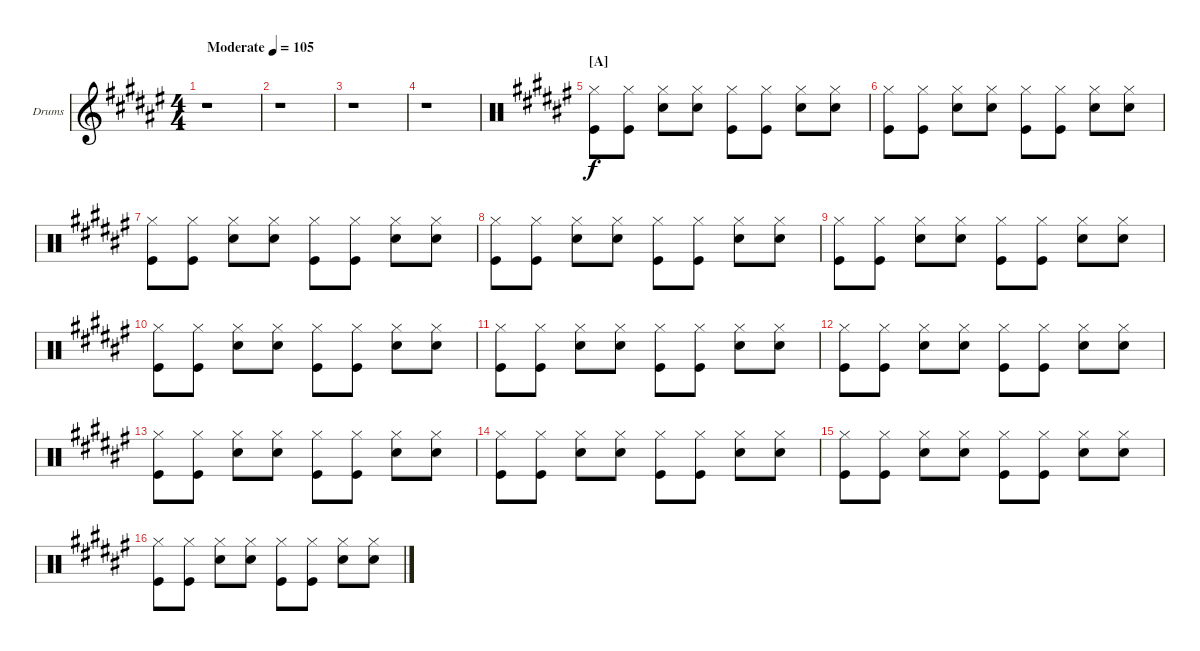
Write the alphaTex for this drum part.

\bracketExtendMode groupsimilarinstruments
\firstSystemTrackNameOrientation horizontal
\otherSystemsTrackNameOrientation horizontal
\track ("Fab Moretti" "Drums") {instrument percussion}
\staff {score}
\articulation defaults
\ts (4 4)
\beaming (8 2 2 2 2)
\tempo (105 "Moderate")
\clef g2
\ks f#
r.1{dy f} |
r.1 |
r.1 |
r.1 |
\section ("A" "")
\clef neutral
("Hi-Hat (closed)" "Kick (hit)").8 ("Hi-Hat (closed)" "Kick (hit)").8 ("Hi-Hat (closed)" "Snare (hit) 2").8 ("Hi-Hat (closed)" "Snare (hit) 2").8 ("Hi-Hat (closed)" "Kick (hit)").8 ("Hi-Hat (closed)" "Kick (hit)").8 ("Hi-Hat (closed)" "Snare (hit) 2").8 ("Hi-Hat (closed)" "Snare (hit) 2").8 |
("Hi-Hat (closed)" "Kick (hit)").8 ("Hi-Hat (closed)" "Kick (hit)").8 ("Hi-Hat (closed)" "Snare (hit) 2").8 ("Hi-Hat (closed)" "Snare (hit) 2").8 ("Hi-Hat (closed)" "Kick (hit)").8 ("Hi-Hat (closed)" "Kick (hit)").8 ("Hi-Hat (closed)" "Snare (hit) 2").8 ("Hi-Hat (closed)" "Snare (hit) 2").8 |
("Hi-Hat (closed)" "Kick (hit)").8 ("Hi-Hat (closed)" "Kick (hit)").8 ("Hi-Hat (closed)" "Snare (hit) 2").8 ("Hi-Hat (closed)" "Snare (hit) 2").8 ("Hi-Hat (closed)" "Kick (hit)").8 ("Hi-Hat (closed)" "Kick (hit)").8 ("Hi-Hat (closed)" "Snare (hit) 2").8 ("Hi-Hat (closed)" "Snare (hit) 2").8 |
("Hi-Hat (closed)" "Kick (hit)").8 ("Hi-Hat (closed)" "Kick (hit)").8 ("Hi-Hat (closed)" "Snare (hit) 2").8 ("Hi-Hat (closed)" "Snare (hit) 2").8 ("Hi-Hat (closed)" "Kick (hit)").8 ("Hi-Hat (closed)" "Kick (hit)").8 ("Hi-Hat (closed)" "Snare (hit) 2").8 ("Hi-Hat (closed)" "Snare (hit) 2").8 |
("Hi-Hat (closed)" "Kick (hit)").8 ("Hi-Hat (closed)" "Kick (hit)").8 ("Hi-Hat (closed)" "Snare (hit) 2").8 ("Hi-Hat (closed)" "Snare (hit) 2").8 ("Hi-Hat (closed)" "Kick (hit)").8 ("Hi-Hat (closed)" "Kick (hit)").8 ("Hi-Hat (closed)" "Snare (hit) 2").8 ("Hi-Hat (closed)" "Snare (hit) 2").8 |
("Hi-Hat (closed)" "Kick (hit)").8 ("Hi-Hat (closed)" "Kick (hit)").8 ("Hi-Hat (closed)" "Snare (hit) 2").8 ("Hi-Hat (closed)" "Snare (hit) 2").8 ("Hi-Hat (closed)" "Kick (hit)").8 ("Hi-Hat (closed)" "Kick (hit)").8 ("Hi-Hat (closed)" "Snare (hit) 2").8 ("Hi-Hat (closed)" "Snare (hit) 2").8 |
("Hi-Hat (closed)" "Kick (hit)").8 ("Hi-Hat (closed)" "Kick (hit)").8 ("Hi-Hat (closed)" "Snare (hit) 2").8 ("Hi-Hat (closed)" "Snare (hit) 2").8 ("Hi-Hat (closed)" "Kick (hit)").8 ("Hi-Hat (closed)" "Kick (hit)").8 ("Hi-Hat (closed)" "Snare (hit) 2").8 ("Hi-Hat (closed)" "Snare (hit) 2").8 |
("Hi-Hat (closed)" "Kick (hit)").8 ("Hi-Hat (closed)" "Kick (hit)").8 ("Hi-Hat (closed)" "Snare (hit) 2").8 ("Hi-Hat (closed)" "Snare (hit) 2").8 ("Hi-Hat (closed)" "Kick (hit)").8 ("Hi-Hat (closed)" "Kick (hit)").8 ("Hi-Hat (closed)" "Snare (hit) 2").8 ("Hi-Hat (closed)" "Snare (hit) 2").8 |
("Hi-Hat (closed)" "Kick (hit)").8 ("Hi-Hat (closed)" "Kick (hit)").8 ("Hi-Hat (closed)" "Snare (hit) 2").8 ("Hi-Hat (closed)" "Snare (hit) 2").8 ("Hi-Hat (closed)" "Kick (hit)").8 ("Hi-Hat (closed)" "Kick (hit)").8 ("Hi-Hat (closed)" "Snare (hit) 2").8 ("Hi-Hat (closed)" "Snare (hit) 2").8 |
("Hi-Hat (closed)" "Kick (hit)").8 ("Hi-Hat (closed)" "Kick (hit)").8 ("Hi-Hat (closed)" "Snare (hit) 2").8 ("Hi-Hat (closed)" "Snare (hit) 2").8 ("Hi-Hat (closed)" "Kick (hit)").8 ("Hi-Hat (closed)" "Kick (hit)").8 ("Hi-Hat (closed)" "Snare (hit) 2").8 ("Hi-Hat (closed)" "Snare (hit) 2").8 |
("Hi-Hat (closed)" "Kick (hit)").8 ("Hi-Hat (closed)" "Kick (hit)").8 ("Hi-Hat (closed)" "Snare (hit) 2").8 ("Hi-Hat (closed)" "Snare (hit) 2").8 ("Hi-Hat (closed)" "Kick (hit)").8 ("Hi-Hat (closed)" "Kick (hit)").8 ("Hi-Hat (closed)" "Snare (hit) 2").8 ("Hi-Hat (closed)" "Snare (hit) 2").8 |
("Hi-Hat (closed)" "Kick (hit)").8 ("Hi-Hat (closed)" "Kick (hit)").8 ("Hi-Hat (closed)" "Snare (hit) 2").8 ("Hi-Hat (closed)" "Snare (hit) 2").8 ("Hi-Hat (closed)" "Kick (hit)").8 ("Hi-Hat (closed)" "Kick (hit)").8 ("Hi-Hat (closed)" "Snare (hit) 2").8 ("Hi-Hat (closed)" "Snare (hit) 2").8
